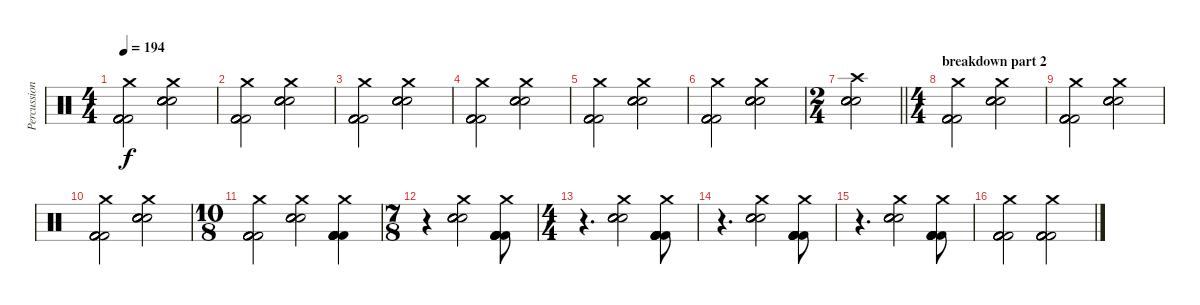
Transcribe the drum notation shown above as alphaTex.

\track ("Percussion" "Percussion") {instrument percussion}
\staff {score}
\articulation defaults
\ts (4 4)
\tempo 194
\clef neutral
\ks c
("Kick (hit) 2" "Kick (hit) 2" "Kick (hit) 2" "Kick (hit) 2" "Kick (hit) 2" "Crash medium (hit)").2{dy f} ("Electric Snare (hit)" "Electric Snare (hit)" "Electric Snare (hit)" "Electric Snare (hit)" "Electric Snare (hit)" "Crash medium (hit)").2 |
("Kick (hit) 2" "Kick (hit) 2" "Kick (hit) 2" "Kick (hit) 2" "Kick (hit) 2" "Crash medium (hit)").2 ("Electric Snare (hit)" "Electric Snare (hit)" "Electric Snare (hit)" "Electric Snare (hit)" "Electric Snare (hit)" "Crash medium (hit)").2 |
("Kick (hit) 2" "Kick (hit) 2" "Kick (hit) 2" "Kick (hit) 2" "Kick (hit) 2" "Crash medium (hit)").2 ("Electric Snare (hit)" "Electric Snare (hit)" "Electric Snare (hit)" "Electric Snare (hit)" "Electric Snare (hit)" "Crash medium (hit)").2 |
("Kick (hit) 2" "Kick (hit) 2" "Kick (hit) 2" "Kick (hit) 2" "Kick (hit) 2" "Crash medium (hit)").2 ("Electric Snare (hit)" "Electric Snare (hit)" "Electric Snare (hit)" "Electric Snare (hit)" "Electric Snare (hit)" "Crash medium (hit)").2 |
("Kick (hit) 2" "Kick (hit) 2" "Kick (hit) 2" "Kick (hit) 2" "Kick (hit) 2" "Crash medium (hit)").2 ("Electric Snare (hit)" "Electric Snare (hit)" "Electric Snare (hit)" "Electric Snare (hit)" "Electric Snare (hit)" "Crash medium (hit)").2 |
("Kick (hit) 2" "Kick (hit) 2" "Kick (hit) 2" "Kick (hit) 2" "Kick (hit) 2" "Crash medium (hit)").2 ("Electric Snare (hit)" "Electric Snare (hit)" "Electric Snare (hit)" "Electric Snare (hit)" "Electric Snare (hit)" "Crash medium (hit)").2 |
\ts (2 4)
\barLineRight lightlight
("Electric Snare (hit)" "Electric Snare (hit)" "Electric Snare (hit)" "Electric Snare (hit)" "Electric Snare (hit)" "Crash high (hit)").2 |
\ts (4 4)
\section ("" "breakdown part 2")
("Kick (hit) 2" "Kick (hit) 2" "Kick (hit) 2" "Kick (hit) 2" "Kick (hit) 2" "Crash medium (hit)").2 ("Electric Snare (hit)" "Electric Snare (hit)" "Electric Snare (hit)" "Electric Snare (hit)" "Electric Snare (hit)" "Crash medium (hit)").2 |
("Kick (hit) 2" "Kick (hit) 2" "Kick (hit) 2" "Kick (hit) 2" "Kick (hit) 2" "Crash medium (hit)").2 ("Electric Snare (hit)" "Electric Snare (hit)" "Electric Snare (hit)" "Electric Snare (hit)" "Electric Snare (hit)" "Crash medium (hit)").2 |
("Kick (hit) 2" "Kick (hit) 2" "Kick (hit) 2" "Kick (hit) 2" "Kick (hit) 2" "Crash medium (hit)").2 ("Electric Snare (hit)" "Electric Snare (hit)" "Electric Snare (hit)" "Electric Snare (hit)" "Electric Snare (hit)" "Crash medium (hit)").2 |
\ts (10 8)
("Kick (hit) 2" "Kick (hit) 2" "Kick (hit) 2" "Kick (hit) 2" "Kick (hit) 2" "Crash medium (hit)").2 ("Electric Snare (hit)" "Electric Snare (hit)" "Electric Snare (hit)" "Electric Snare (hit)" "Electric Snare (hit)" "Crash medium (hit)").2 ("Kick (hit) 2" "Kick (hit) 2" "Kick (hit) 2" "Kick (hit) 2" "Kick (hit) 2" "Crash medium (hit)").4 |
\ts (7 8)
r.4 ("Electric Snare (hit)" "Electric Snare (hit)" "Electric Snare (hit)" "Electric Snare (hit)" "Electric Snare (hit)" "Crash medium (hit)").2 ("Kick (hit) 2" "Kick (hit) 2" "Kick (hit) 2" "Kick (hit) 2" "Kick (hit) 2" "Crash medium (hit)").8 |
\ts (4 4)
r.4{d} ("Electric Snare (hit)" "Electric Snare (hit)" "Electric Snare (hit)" "Electric Snare (hit)" "Electric Snare (hit)" "Crash medium (hit)").2 ("Kick (hit) 2" "Kick (hit) 2" "Kick (hit) 2" "Kick (hit) 2" "Kick (hit) 2" "Crash medium (hit)").8 |
r.4{d} ("Electric Snare (hit)" "Electric Snare (hit)" "Electric Snare (hit)" "Electric Snare (hit)" "Electric Snare (hit)" "Crash medium (hit)").2 ("Kick (hit) 2" "Kick (hit) 2" "Kick (hit) 2" "Kick (hit) 2" "Kick (hit) 2" "Crash medium (hit)").8 |
r.4{d} ("Electric Snare (hit)" "Electric Snare (hit)" "Electric Snare (hit)" "Electric Snare (hit)" "Electric Snare (hit)" "Crash medium (hit)").2 ("Kick (hit) 2" "Kick (hit) 2" "Kick (hit) 2" "Kick (hit) 2" "Kick (hit) 2" "Crash medium (hit)").8 |
("Kick (hit) 2" "Kick (hit) 2" "Kick (hit) 2" "Kick (hit) 2" "Kick (hit) 2" "Crash medium (hit)").2 ("Kick (hit) 2" "Kick (hit) 2" "Kick (hit) 2" "Kick (hit) 2" "Kick (hit) 2" "Crash medium (hit)").2
